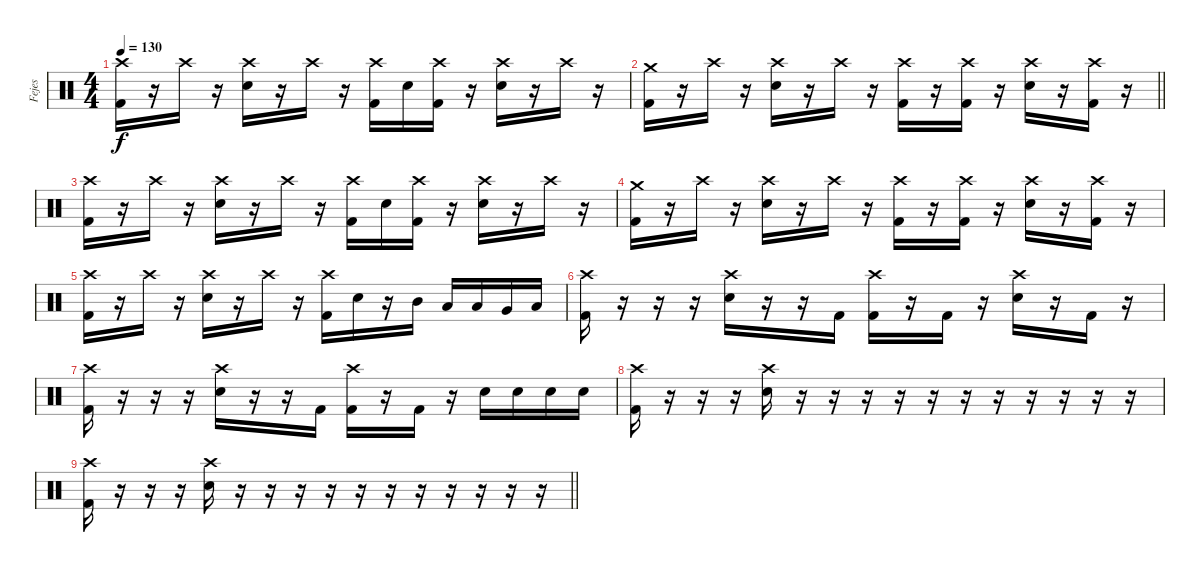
\track ("Fejes" "Fejes") {instrument percussion}
\staff {score}
\articulation defaults
\ts (4 4)
\tempo 130
\clef neutral
\ks c
("Crash high (hit)" "Kick (hit) 2").16{dy f} r.16 "Crash high (hit)".16 r.16 ("Crash high (hit)" "Snare (hit) 2").16 r.16 "Crash high (hit)".16 r.16 ("Crash high (hit)" "Kick (hit) 2").16 "Snare (hit) 2".16 ("Crash high (hit)" "Kick (hit) 2").16 r.16 ("Crash high (hit)" "Snare (hit) 2").16 r.16 "Crash high (hit)".16 r.16 |
\barLineRight lightlight
("Crash medium (hit)" "Kick (hit) 2").16 r.16 "Crash high (hit)".16 r.16 ("Crash high (hit)" "Snare (hit) 2").16 r.16 "Crash high (hit)".16 r.16 ("Crash high (hit)" "Kick (hit) 2").16 r.16 ("Crash high (hit)" "Kick (hit) 2").16 r.16 ("Crash high (hit)" "Snare (hit) 2").16 r.16 ("Crash high (hit)" "Kick (hit) 2").16 r.16 |
("Crash high (hit)" "Kick (hit) 2").16 r.16 "Crash high (hit)".16 r.16 ("Crash high (hit)" "Snare (hit) 2").16 r.16 "Crash high (hit)".16 r.16 ("Crash high (hit)" "Kick (hit) 2").16 "Snare (hit) 2".16 ("Crash high (hit)" "Kick (hit) 2").16 r.16 ("Crash high (hit)" "Snare (hit) 2").16 r.16 "Crash high (hit)".16 r.16 |
("Crash medium (hit)" "Kick (hit) 2").16 r.16 "Crash high (hit)".16 r.16 ("Crash high (hit)" "Snare (hit) 2").16 r.16 "Crash high (hit)".16 r.16 ("Crash high (hit)" "Kick (hit) 2").16 r.16 ("Crash high (hit)" "Kick (hit) 2").16 r.16 ("Crash high (hit)" "Snare (hit) 2").16 r.16 ("Crash high (hit)" "Kick (hit) 2").16 r.16 |
("Crash high (hit)" "Kick (hit) 2").16 r.16 "Crash high (hit)".16 r.16 ("Crash high (hit)" "Snare (hit) 2").16 r.16 "Crash high (hit)".16 r.16 ("Crash high (hit)" "Kick (hit) 2").16 "Snare (hit) 2".16 r.16 "Mid Tom (hit)".16 "Low Tom (hit)".16 "Low Tom (hit)".16 "Very Low Tom (hit)".16 "Low Floor Tom (hit)".16 |
("Crash high (hit)" "Kick (hit) 2").16 r.16 r.16 r.16 ("Crash high (hit)" "Snare (hit) 2").16 r.16 r.16 "Kick (hit) 2".16 ("Crash high (hit)" "Kick (hit) 2").16 r.16 "Kick (hit) 2".16 r.16 ("Crash high (hit)" "Snare (hit) 2").16 r.16 "Kick (hit) 2".16 r.16 |
("Crash high (hit)" "Kick (hit) 2").16 r.16 r.16 r.16 ("Crash high (hit)" "Snare (hit) 2").16 r.16 r.16 "Kick (hit) 2".16 ("Crash high (hit)" "Kick (hit) 2").16 r.16 "Kick (hit) 2".16 r.16 "Snare (hit) 2".16 "Snare (hit) 2".16 "Snare (hit) 2".16 "Snare (hit) 2".16 |
("Crash high (hit)" "Kick (hit) 2").16 r.16 r.16 r.16 ("Crash high (hit)" "Snare (hit) 2").16 r.16 r.16 r.16 r.16 r.16 r.16 r.16 r.16 r.16 r.16 r.16 |
\barLineRight lightlight
("Crash high (hit)" "Kick (hit) 2").16 r.16 r.16 r.16 ("Crash high (hit)" "Snare (hit) 2").16 r.16 r.16 r.16 r.16 r.16 r.16 r.16 r.16 r.16 r.16 r.16
